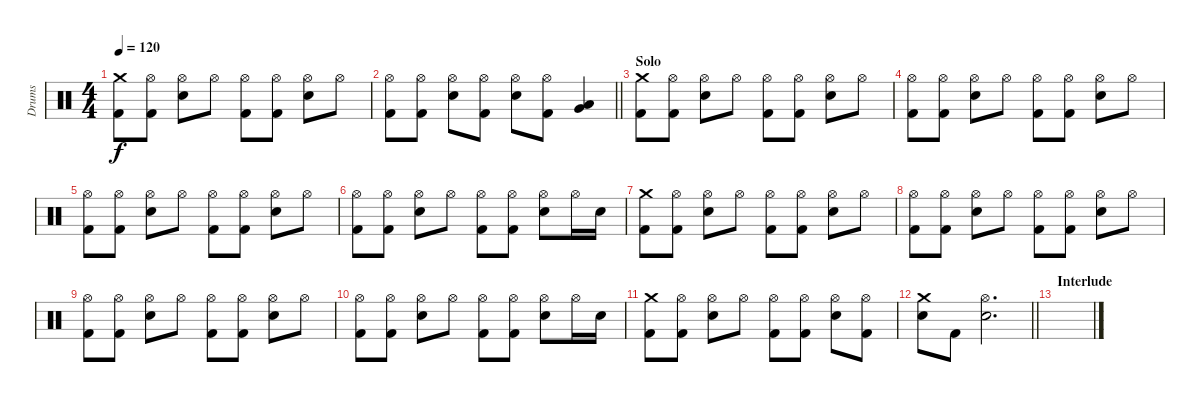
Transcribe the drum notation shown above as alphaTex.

\track ("Drums" "Drums") {instrument percussion}
\staff {score}
\articulation defaults
\ts (4 4)
\tempo 120
\clef neutral
\ks c
("Crash medium (hit)" "Kick (hit) 2").8{dy f} ("Hi-Hat (open)" "Kick (hit) 2").8 ("Hi-Hat (open)" "Electric Snare (hit)").8 "Hi-Hat (open)".8 ("Hi-Hat (open)" "Kick (hit) 2").8 ("Hi-Hat (open)" "Kick (hit) 2").8 ("Hi-Hat (open)" "Electric Snare (hit)").8 "Hi-Hat (open)".8 |
\barLineRight lightlight
("Hi-Hat (open)" "Kick (hit) 2").8 ("Hi-Hat (open)" "Kick (hit) 2").8 ("Hi-Hat (open)" "Electric Snare (hit)").8 ("Hi-Hat (open)" "Kick (hit) 2").8 ("Hi-Hat (open)" "Electric Snare (hit)").8 ("Hi-Hat (open)" "Kick (hit) 2").8 ("Low Tom (hit)" "Very Low Tom (hit)").4 |
\section ("" "Solo")
("Crash medium (hit)" "Kick (hit) 2").8 ("Hi-Hat (open)" "Kick (hit) 2").8 ("Hi-Hat (open)" "Electric Snare (hit)").8 "Hi-Hat (open)".8 ("Hi-Hat (open)" "Kick (hit) 2").8 ("Hi-Hat (open)" "Kick (hit) 2").8 ("Hi-Hat (open)" "Electric Snare (hit)").8 "Hi-Hat (open)".8 |
("Hi-Hat (open)" "Kick (hit) 2").8 ("Hi-Hat (open)" "Kick (hit) 2").8 ("Hi-Hat (open)" "Electric Snare (hit)").8 "Hi-Hat (open)".8 ("Hi-Hat (open)" "Kick (hit) 2").8 ("Hi-Hat (open)" "Kick (hit) 2").8 ("Hi-Hat (open)" "Electric Snare (hit)").8 "Hi-Hat (open)".8 |
("Hi-Hat (open)" "Kick (hit) 2").8 ("Hi-Hat (open)" "Kick (hit) 2").8 ("Hi-Hat (open)" "Electric Snare (hit)").8 "Hi-Hat (open)".8 ("Hi-Hat (open)" "Kick (hit) 2").8 ("Hi-Hat (open)" "Kick (hit) 2").8 ("Hi-Hat (open)" "Electric Snare (hit)").8 "Hi-Hat (open)".8 |
("Hi-Hat (open)" "Kick (hit) 2").8 ("Hi-Hat (open)" "Kick (hit) 2").8 ("Hi-Hat (open)" "Electric Snare (hit)").8 "Hi-Hat (open)".8 ("Hi-Hat (open)" "Kick (hit) 2").8 ("Hi-Hat (open)" "Kick (hit) 2").8 ("Hi-Hat (open)" "Electric Snare (hit)").8 "Hi-Hat (open)".16 "Electric Snare (hit)".16 |
("Crash medium (hit)" "Kick (hit) 2").8 ("Hi-Hat (open)" "Kick (hit) 2").8 ("Hi-Hat (open)" "Electric Snare (hit)").8 "Hi-Hat (open)".8 ("Hi-Hat (open)" "Kick (hit) 2").8 ("Hi-Hat (open)" "Kick (hit) 2").8 ("Hi-Hat (open)" "Electric Snare (hit)").8 "Hi-Hat (open)".8 |
("Hi-Hat (open)" "Kick (hit) 2").8 ("Hi-Hat (open)" "Kick (hit) 2").8 ("Hi-Hat (open)" "Electric Snare (hit)").8 "Hi-Hat (open)".8 ("Hi-Hat (open)" "Kick (hit) 2").8 ("Hi-Hat (open)" "Kick (hit) 2").8 ("Hi-Hat (open)" "Electric Snare (hit)").8 "Hi-Hat (open)".8 |
("Hi-Hat (open)" "Kick (hit) 2").8 ("Hi-Hat (open)" "Kick (hit) 2").8 ("Hi-Hat (open)" "Electric Snare (hit)").8 "Hi-Hat (open)".8 ("Hi-Hat (open)" "Kick (hit) 2").8 ("Hi-Hat (open)" "Kick (hit) 2").8 ("Hi-Hat (open)" "Electric Snare (hit)").8 "Hi-Hat (open)".8 |
("Hi-Hat (open)" "Kick (hit) 2").8 ("Hi-Hat (open)" "Kick (hit) 2").8 ("Hi-Hat (open)" "Electric Snare (hit)").8 "Hi-Hat (open)".8 ("Hi-Hat (open)" "Kick (hit) 2").8 ("Hi-Hat (open)" "Kick (hit) 2").8 ("Hi-Hat (open)" "Electric Snare (hit)").8 "Hi-Hat (open)".16 "Electric Snare (hit)".16 |
("Crash medium (hit)" "Kick (hit) 2").8 ("Hi-Hat (open)" "Kick (hit) 2").8 ("Hi-Hat (open)" "Electric Snare (hit)").8 "Hi-Hat (open)".8 ("Hi-Hat (open)" "Kick (hit) 2").8 ("Hi-Hat (open)" "Kick (hit) 2").8 ("Hi-Hat (open)" "Electric Snare (hit)").8 ("Hi-Hat (open)" "Kick (hit) 2").8 |
\barLineRight lightlight
("Crash medium (hit)" "Electric Snare (hit)").8 "Kick (hit) 2".8 ("Hi-Hat (open)" "Electric Snare (hit)").2{d} |
\section ("" "Interlude")
